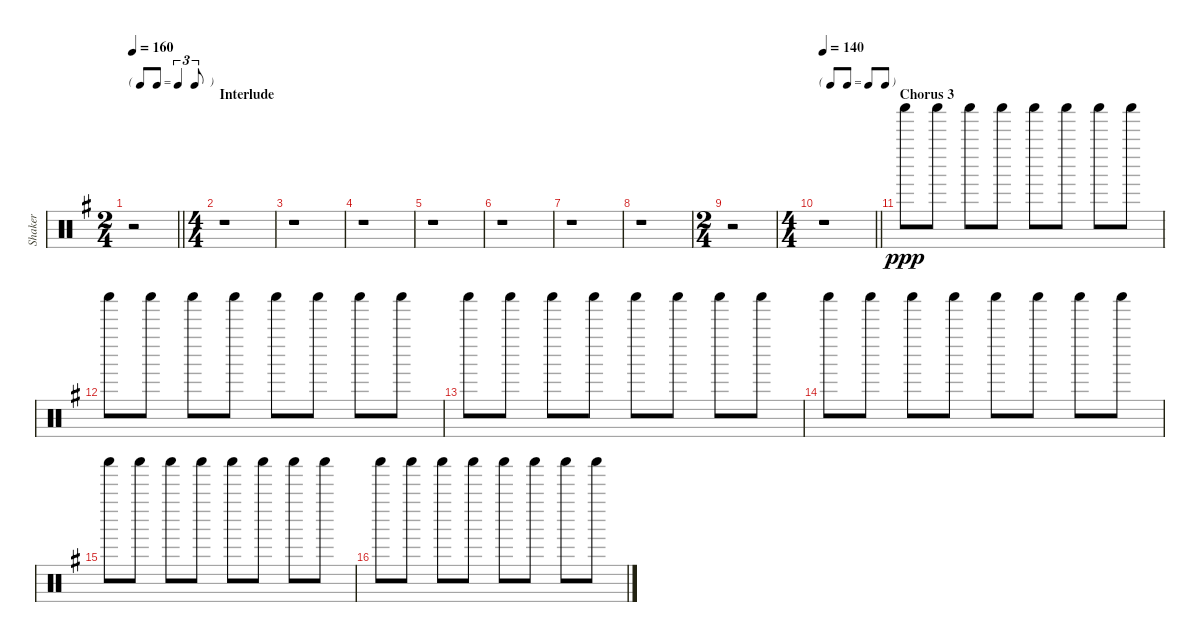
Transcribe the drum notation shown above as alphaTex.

\track ("Shaker" "Shaker") {instrument percussion}
\staff {score}
\articulation defaults
\ts (2 4)
\tf triplet8th
\tempo 60
\tempo 160
\clef neutral
\barLineRight lightlight
\ks g
r.2{dy ppp} |
\ts (4 4)
\section ("" "Interlude")
r.1 |
r.1 |
r.1 |
r.1 |
r.1 |
r.1 |
r.1 |
\ts (2 4)
r.2 |
\ts (4 4)
\tf none
\tempo 140
\barLineRight lightlight
r.1 |
\section ("" "Chorus 3")
"Shaker (hit)".8 "Shaker (hit)".8 "Shaker (hit)".8 "Shaker (hit)".8 "Shaker (hit)".8 "Shaker (hit)".8 "Shaker (hit)".8 "Shaker (hit)".8 |
"Shaker (hit)".8 "Shaker (hit)".8 "Shaker (hit)".8 "Shaker (hit)".8 "Shaker (hit)".8 "Shaker (hit)".8 "Shaker (hit)".8 "Shaker (hit)".8 |
"Shaker (hit)".8 "Shaker (hit)".8 "Shaker (hit)".8 "Shaker (hit)".8 "Shaker (hit)".8 "Shaker (hit)".8 "Shaker (hit)".8 "Shaker (hit)".8 |
"Shaker (hit)".8 "Shaker (hit)".8 "Shaker (hit)".8 "Shaker (hit)".8 "Shaker (hit)".8 "Shaker (hit)".8 "Shaker (hit)".8 "Shaker (hit)".8 |
"Shaker (hit)".8 "Shaker (hit)".8 "Shaker (hit)".8 "Shaker (hit)".8 "Shaker (hit)".8 "Shaker (hit)".8 "Shaker (hit)".8 "Shaker (hit)".8 |
"Shaker (hit)".8 "Shaker (hit)".8 "Shaker (hit)".8 "Shaker (hit)".8 "Shaker (hit)".8 "Shaker (hit)".8 "Shaker (hit)".8 "Shaker (hit)".8
